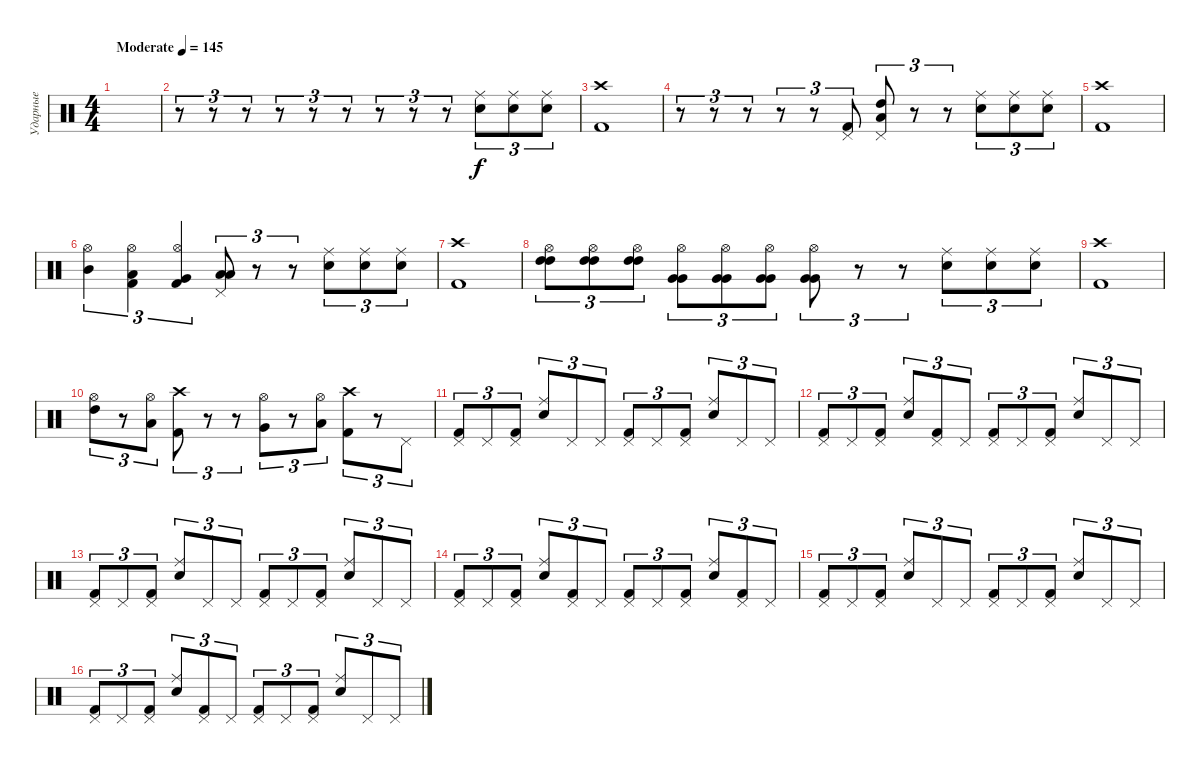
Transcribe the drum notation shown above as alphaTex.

\track ("Ударные" "Ударные") {instrument percussion}
\staff {score}
\articulation defaults
\ts (4 4)
\tempo (145 "Moderate")
\clef neutral
\ks c
|
r.8{tu (3 2)} r.8{tu (3 2)} r.8{tu (3 2)} r.8{tu (3 2)} r.8{tu (3 2)} r.8{tu (3 2)} r.8{tu (3 2)} r.8{tu (3 2)} r.8{tu (3 2)} ("Electric Snare (hit)" "Ride (middle)").8{tu (3 2)} ("Electric Snare (hit)" "Ride (middle)").8{tu (3 2)} ("Electric Snare (hit)" "Ride (middle)").8{tu (3 2)} |
("Kick (hit) 2" "Crash high (hit)").1 |
r.8{tu (3 2)} r.8{tu (3 2)} r.8{tu (3 2)} r.8{tu (3 2)} r.8{tu (3 2)} ("Kick (hit) 2" "Pedal Hi-Hat (hit)").8{tu (3 2)} ("Low Tom (hit)" "High Tom (hit)" "Pedal Hi-Hat (hit)").8{tu (3 2)} r.8{tu (3 2)} r.8{tu (3 2)} ("Electric Snare (hit)" "Ride (middle)").8{tu (3 2)} ("Electric Snare (hit)" "Ride (middle)").8{tu (3 2)} ("Electric Snare (hit)" "Ride (middle)").8{tu (3 2)} |
("Kick (hit) 2" "Crash high (hit)").1 |
("Mid Tom (hit)" "Hi-Hat (open)").4{tu (3 2)} ("Hi-Hat (open)" "Low Tom (hit)" "Kick (hit) 2").4{tu (3 2)} ("Very Low Tom (hit)" "Hi-Hat (open)" "Kick (hit) 2").4{tu (3 2)} ("Low Floor Tom (hit)" "Low Floor Tom (hit)" "Pedal Hi-Hat (hit)").8{tu (3 2)} r.8{tu (3 2)} r.8{tu (3 2)} ("Electric Snare (hit)" "Ride (middle)").8{tu (3 2)} ("Electric Snare (hit)" "Ride (middle)").8{tu (3 2)} ("Electric Snare (hit)" "Ride (middle)").8{tu (3 2)} |
("Kick (hit) 2" "Crash high (hit)").1 |
("High Tom (hit)" "High Tom (hit)" "Hi-Hat (open)").8{tu (3 2)} ("High Tom (hit)" "High Tom (hit)" "Hi-Hat (open)").8{tu (3 2)} ("High Tom (hit)" "High Tom (hit)" "Hi-Hat (open)").8{tu (3 2)} ("Very Low Tom (hit)" "Very Low Tom (hit)" "Hi-Hat (open)").8{tu (3 2)} ("Very Low Tom (hit)" "Very Low Tom (hit)" "Hi-Hat (open)").8{tu (3 2)} ("Very Low Tom (hit)" "Very Low Tom (hit)" "Hi-Hat (open)").8{tu (3 2)} ("Very Low Tom (hit)" "Very Low Tom (hit)" "Hi-Hat (open)").8{tu (3 2)} r.8{tu (3 2)} r.8{tu (3 2)} ("Electric Snare (hit)" "Ride (middle)").8{tu (3 2)} ("Electric Snare (hit)" "Ride (middle)").8{tu (3 2)} ("Electric Snare (hit)" "Ride (middle)").8{tu (3 2)} |
("Kick (hit) 2" "Crash high (hit)").1 |
("High Tom (hit)" "Hi-Hat (open)").8{tu (3 2)} r.8{tu (3 2)} ("Low Tom (hit)" "Hi-Hat (open)").8{tu (3 2)} ("Crash high (hit)" "Kick (hit) 2").8{tu (3 2)} r.8{tu (3 2)} r.8{tu (3 2)} ("Very Low Tom (hit)" "Hi-Hat (open)").8{tu (3 2)} r.8{tu (3 2)} ("Low Floor Tom (hit)" "Hi-Hat (open)").8{tu (3 2)} ("Kick (hit) 2" "Crash high (hit)").8{tu (3 2)} r.8{tu (3 2)} "Pedal Hi-Hat (hit)".8{tu (3 2)} |
("Kick (hit) 2" "Pedal Hi-Hat (hit)").8{tu (3 2)} "Pedal Hi-Hat (hit)".8{tu (3 2)} ("Kick (hit) 2" "Pedal Hi-Hat (hit)").8{tu (3 2)} ("Electric Snare (hit)" "Ride (middle)").8{tu (3 2)} "Pedal Hi-Hat (hit)".8{tu (3 2)} "Pedal Hi-Hat (hit)".8{tu (3 2)} ("Kick (hit) 2" "Pedal Hi-Hat (hit)").8{tu (3 2)} "Pedal Hi-Hat (hit)".8{tu (3 2)} ("Pedal Hi-Hat (hit)" "Kick (hit) 2").8{tu (3 2)} ("Electric Snare (hit)" "Ride (middle)").8{tu (3 2)} "Pedal Hi-Hat (hit)".8{tu (3 2)} "Pedal Hi-Hat (hit)".8{tu (3 2)} |
("Kick (hit) 2" "Pedal Hi-Hat (hit)").8{tu (3 2)} "Pedal Hi-Hat (hit)".8{tu (3 2)} ("Kick (hit) 2" "Pedal Hi-Hat (hit)").8{tu (3 2)} ("Electric Snare (hit)" "Ride (middle)").8{tu (3 2)} ("Kick (hit) 2" "Pedal Hi-Hat (hit)").8{tu (3 2)} "Pedal Hi-Hat (hit)".8{tu (3 2)} ("Kick (hit) 2" "Pedal Hi-Hat (hit)").8{tu (3 2)} "Pedal Hi-Hat (hit)".8{tu (3 2)} ("Pedal Hi-Hat (hit)" "Kick (hit) 2").8{tu (3 2)} ("Electric Snare (hit)" "Ride (middle)").8{tu (3 2)} "Pedal Hi-Hat (hit)".8{tu (3 2)} "Pedal Hi-Hat (hit)".8{tu (3 2)} |
("Kick (hit) 2" "Pedal Hi-Hat (hit)").8{tu (3 2)} "Pedal Hi-Hat (hit)".8{tu (3 2)} ("Kick (hit) 2" "Pedal Hi-Hat (hit)").8{tu (3 2)} ("Electric Snare (hit)" "Ride (middle)").8{tu (3 2)} "Pedal Hi-Hat (hit)".8{tu (3 2)} "Pedal Hi-Hat (hit)".8{tu (3 2)} ("Kick (hit) 2" "Pedal Hi-Hat (hit)").8{tu (3 2)} "Pedal Hi-Hat (hit)".8{tu (3 2)} ("Pedal Hi-Hat (hit)" "Kick (hit) 2").8{tu (3 2)} ("Electric Snare (hit)" "Ride (middle)").8{tu (3 2)} "Pedal Hi-Hat (hit)".8{tu (3 2)} "Pedal Hi-Hat (hit)".8{tu (3 2)} |
("Kick (hit) 2" "Pedal Hi-Hat (hit)").8{tu (3 2)} "Pedal Hi-Hat (hit)".8{tu (3 2)} ("Kick (hit) 2" "Pedal Hi-Hat (hit)").8{tu (3 2)} ("Electric Snare (hit)" "Ride (middle)").8{tu (3 2)} ("Kick (hit) 2" "Pedal Hi-Hat (hit)").8{tu (3 2)} "Pedal Hi-Hat (hit)".8{tu (3 2)} ("Kick (hit) 2" "Pedal Hi-Hat (hit)").8{tu (3 2)} "Pedal Hi-Hat (hit)".8{tu (3 2)} ("Pedal Hi-Hat (hit)" "Kick (hit) 2").8{tu (3 2)} ("Electric Snare (hit)" "Ride (middle)").8{tu (3 2)} ("Kick (hit) 2" "Pedal Hi-Hat (hit)").8{tu (3 2)} "Pedal Hi-Hat (hit)".8{tu (3 2)} |
("Kick (hit) 2" "Pedal Hi-Hat (hit)").8{tu (3 2)} "Pedal Hi-Hat (hit)".8{tu (3 2)} ("Kick (hit) 2" "Pedal Hi-Hat (hit)").8{tu (3 2)} ("Electric Snare (hit)" "Ride (middle)").8{tu (3 2)} "Pedal Hi-Hat (hit)".8{tu (3 2)} "Pedal Hi-Hat (hit)".8{tu (3 2)} ("Kick (hit) 2" "Pedal Hi-Hat (hit)").8{tu (3 2)} "Pedal Hi-Hat (hit)".8{tu (3 2)} ("Pedal Hi-Hat (hit)" "Kick (hit) 2").8{tu (3 2)} ("Electric Snare (hit)" "Ride (middle)").8{tu (3 2)} "Pedal Hi-Hat (hit)".8{tu (3 2)} "Pedal Hi-Hat (hit)".8{tu (3 2)} |
("Kick (hit) 2" "Pedal Hi-Hat (hit)").8{tu (3 2)} "Pedal Hi-Hat (hit)".8{tu (3 2)} ("Kick (hit) 2" "Pedal Hi-Hat (hit)").8{tu (3 2)} ("Electric Snare (hit)" "Ride (middle)").8{tu (3 2)} ("Pedal Hi-Hat (hit)" "Kick (hit) 2").8{tu (3 2)} "Pedal Hi-Hat (hit)".8{tu (3 2)} ("Kick (hit) 2" "Pedal Hi-Hat (hit)").8{tu (3 2)} "Pedal Hi-Hat (hit)".8{tu (3 2)} ("Pedal Hi-Hat (hit)" "Kick (hit) 2").8{tu (3 2)} ("Electric Snare (hit)" "Ride (middle)").8{tu (3 2)} "Pedal Hi-Hat (hit)".8{tu (3 2)} "Pedal Hi-Hat (hit)".8{tu (3 2)}
